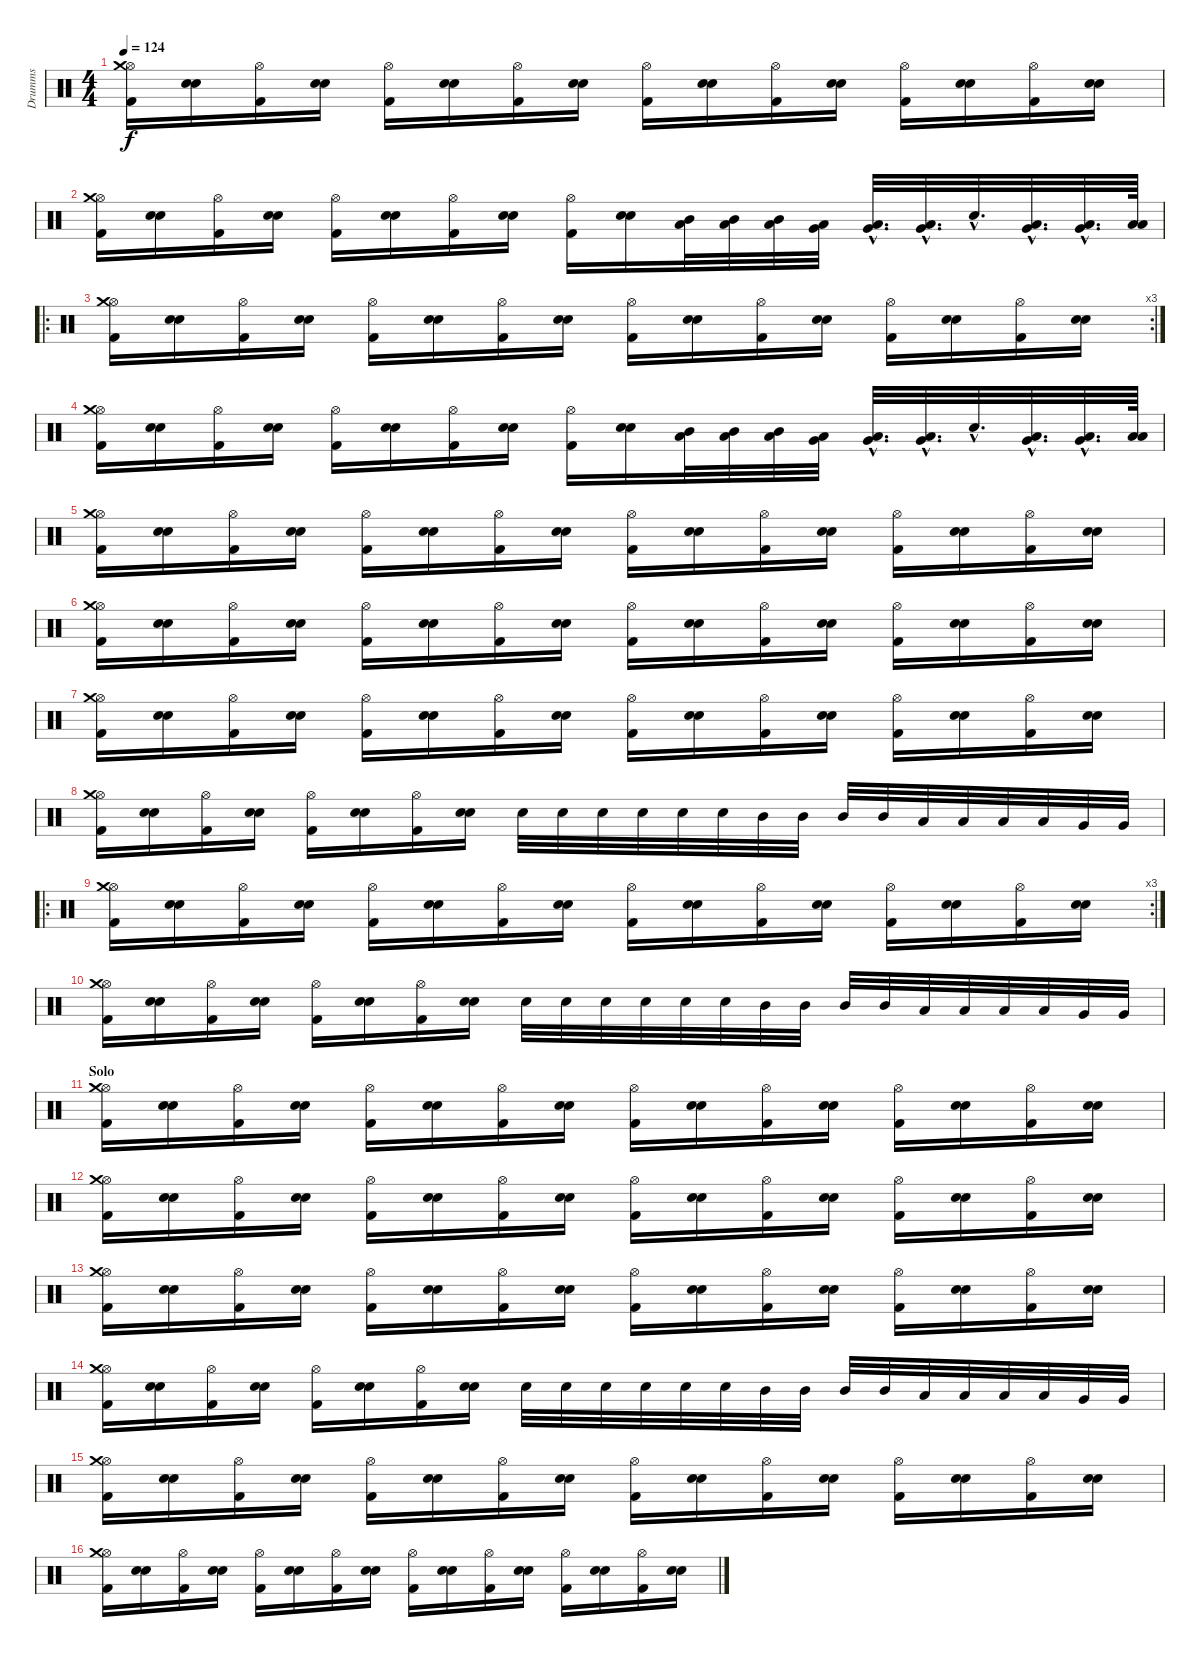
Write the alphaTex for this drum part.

\track ("Drumms" "Drumms") {instrument percussion}
\staff {score}
\articulation defaults
\ts (4 4)
\tempo 124
\clef neutral
\ks c
("Kick (hit) 2" "Hi-Hat (open)" "Crash medium (hit)").16{dy f} ("Snare (hit) 2" "Snare (hit) 2").16 ("Kick (hit) 2" "Hi-Hat (open)").16 ("Snare (hit) 2" "Snare (hit) 2").16 ("Kick (hit) 2" "Hi-Hat (open)").16 ("Snare (hit) 2" "Snare (hit) 2").16 ("Kick (hit) 2" "Hi-Hat (open)").16 ("Snare (hit) 2" "Snare (hit) 2").16 ("Kick (hit) 2" "Hi-Hat (open)").16 ("Snare (hit) 2" "Snare (hit) 2").16 ("Kick (hit) 2" "Hi-Hat (open)").16 ("Snare (hit) 2" "Snare (hit) 2").16 ("Kick (hit) 2" "Hi-Hat (open)").16 ("Snare (hit) 2" "Snare (hit) 2").16 ("Kick (hit) 2" "Hi-Hat (open)").16 ("Snare (hit) 2" "Snare (hit) 2").16 |
("Kick (hit) 2" "Hi-Hat (open)" "Crash medium (hit)").16 ("Snare (hit) 2" "Snare (hit) 2").16 ("Kick (hit) 2" "Hi-Hat (open)").16 ("Snare (hit) 2" "Snare (hit) 2").16 ("Kick (hit) 2" "Hi-Hat (open)").16 ("Snare (hit) 2" "Snare (hit) 2").16 ("Kick (hit) 2" "Hi-Hat (open)").16 ("Snare (hit) 2" "Snare (hit) 2").16 ("Kick (hit) 2" "Hi-Hat (open)").16 ("Snare (hit) 2" "Snare (hit) 2").16 ("Mid Tom (hit)" "Low Tom (hit)").32 ("Mid Tom (hit)" "Low Tom (hit)").32 ("Mid Tom (hit)" "Low Tom (hit)").32 ("Low Tom (hit)" "Very Low Tom (hit)").32 ("Low Tom (hit)"{hac} "Very Low Tom (hit)"{hac}).32{d} ("Low Tom (hit)"{hac} "Very Low Tom (hit)"{hac}).32{d} "Snare (hit) 2"{hac}.32{d} ("Very Low Tom (hit)"{hac} "Low Floor Tom (hit)"{hac}).32{d} ("Very Low Tom (hit)"{hac} "Low Floor Tom (hit)"{hac}).32{d} ("Low Floor Tom (hit)" "Low Floor Tom (hit)").64 |
\ro
\rc 3
("Kick (hit) 2" "Hi-Hat (open)" "Crash medium (hit)").16 ("Snare (hit) 2" "Snare (hit) 2").16 ("Kick (hit) 2" "Hi-Hat (open)").16 ("Snare (hit) 2" "Snare (hit) 2").16 ("Kick (hit) 2" "Hi-Hat (open)").16 ("Snare (hit) 2" "Snare (hit) 2").16 ("Kick (hit) 2" "Hi-Hat (open)").16 ("Snare (hit) 2" "Snare (hit) 2").16 ("Kick (hit) 2" "Hi-Hat (open)").16 ("Snare (hit) 2" "Snare (hit) 2").16 ("Kick (hit) 2" "Hi-Hat (open)").16 ("Snare (hit) 2" "Snare (hit) 2").16 ("Kick (hit) 2" "Hi-Hat (open)").16 ("Snare (hit) 2" "Snare (hit) 2").16 ("Kick (hit) 2" "Hi-Hat (open)").16 ("Snare (hit) 2" "Snare (hit) 2").16 |
("Kick (hit) 2" "Hi-Hat (open)" "Crash medium (hit)").16 ("Snare (hit) 2" "Snare (hit) 2").16 ("Kick (hit) 2" "Hi-Hat (open)").16 ("Snare (hit) 2" "Snare (hit) 2").16 ("Kick (hit) 2" "Hi-Hat (open)").16 ("Snare (hit) 2" "Snare (hit) 2").16 ("Kick (hit) 2" "Hi-Hat (open)").16 ("Snare (hit) 2" "Snare (hit) 2").16 ("Kick (hit) 2" "Hi-Hat (open)").16 ("Snare (hit) 2" "Snare (hit) 2").16 ("Mid Tom (hit)" "Low Tom (hit)").32 ("Mid Tom (hit)" "Low Tom (hit)").32 ("Mid Tom (hit)" "Low Tom (hit)").32 ("Low Tom (hit)" "Very Low Tom (hit)").32 ("Low Tom (hit)"{hac} "Very Low Tom (hit)"{hac}).32{d} ("Low Tom (hit)"{hac} "Very Low Tom (hit)"{hac}).32{d} "Snare (hit) 2"{hac}.32{d} ("Very Low Tom (hit)"{hac} "Low Floor Tom (hit)"{hac}).32{d} ("Very Low Tom (hit)"{hac} "Low Floor Tom (hit)"{hac}).32{d} ("Low Floor Tom (hit)" "Low Floor Tom (hit)").64 |
("Kick (hit) 2" "Hi-Hat (open)" "Crash medium (hit)").16 ("Snare (hit) 2" "Snare (hit) 2").16 ("Kick (hit) 2" "Hi-Hat (open)").16 ("Snare (hit) 2" "Snare (hit) 2").16 ("Kick (hit) 2" "Hi-Hat (open)").16 ("Snare (hit) 2" "Snare (hit) 2").16 ("Kick (hit) 2" "Hi-Hat (open)").16 ("Snare (hit) 2" "Snare (hit) 2").16 ("Kick (hit) 2" "Hi-Hat (open)").16 ("Snare (hit) 2" "Snare (hit) 2").16 ("Kick (hit) 2" "Hi-Hat (open)").16 ("Snare (hit) 2" "Snare (hit) 2").16 ("Kick (hit) 2" "Hi-Hat (open)").16 ("Snare (hit) 2" "Snare (hit) 2").16 ("Kick (hit) 2" "Hi-Hat (open)").16 ("Snare (hit) 2" "Snare (hit) 2").16 |
("Kick (hit) 2" "Hi-Hat (open)" "Crash medium (hit)").16 ("Snare (hit) 2" "Snare (hit) 2").16 ("Kick (hit) 2" "Hi-Hat (open)").16 ("Snare (hit) 2" "Snare (hit) 2").16 ("Kick (hit) 2" "Hi-Hat (open)").16 ("Snare (hit) 2" "Snare (hit) 2").16 ("Kick (hit) 2" "Hi-Hat (open)").16 ("Snare (hit) 2" "Snare (hit) 2").16 ("Kick (hit) 2" "Hi-Hat (open)").16 ("Snare (hit) 2" "Snare (hit) 2").16 ("Kick (hit) 2" "Hi-Hat (open)").16 ("Snare (hit) 2" "Snare (hit) 2").16 ("Kick (hit) 2" "Hi-Hat (open)").16 ("Snare (hit) 2" "Snare (hit) 2").16 ("Kick (hit) 2" "Hi-Hat (open)").16 ("Snare (hit) 2" "Snare (hit) 2").16 |
("Kick (hit) 2" "Hi-Hat (open)" "Crash medium (hit)").16 ("Snare (hit) 2" "Snare (hit) 2").16 ("Kick (hit) 2" "Hi-Hat (open)").16 ("Snare (hit) 2" "Snare (hit) 2").16 ("Kick (hit) 2" "Hi-Hat (open)").16 ("Snare (hit) 2" "Snare (hit) 2").16 ("Kick (hit) 2" "Hi-Hat (open)").16 ("Snare (hit) 2" "Snare (hit) 2").16 ("Kick (hit) 2" "Hi-Hat (open)").16 ("Snare (hit) 2" "Snare (hit) 2").16 ("Kick (hit) 2" "Hi-Hat (open)").16 ("Snare (hit) 2" "Snare (hit) 2").16 ("Kick (hit) 2" "Hi-Hat (open)").16 ("Snare (hit) 2" "Snare (hit) 2").16 ("Kick (hit) 2" "Hi-Hat (open)").16 ("Snare (hit) 2" "Snare (hit) 2").16 |
("Kick (hit) 2" "Hi-Hat (open)" "Crash medium (hit)").16 ("Snare (hit) 2" "Snare (hit) 2").16 ("Kick (hit) 2" "Hi-Hat (open)").16 ("Snare (hit) 2" "Snare (hit) 2").16 ("Kick (hit) 2" "Hi-Hat (open)").16 ("Snare (hit) 2" "Snare (hit) 2").16 ("Kick (hit) 2" "Hi-Hat (open)").16 ("Snare (hit) 2" "Snare (hit) 2").16 "Snare (hit) 2".32 "Snare (hit) 2".32 "Snare (hit) 2".32 "Snare (hit) 2".32 "Snare (hit) 2".32 "Snare (hit) 2".32 "Mid Tom (hit)".32 "Mid Tom (hit)".32 "Mid Tom (hit)".32 "Mid Tom (hit)".32 "Low Tom (hit)".32 "Low Tom (hit)".32 "Low Tom (hit)".32 "Low Tom (hit)".32 "Very Low Tom (hit)".32 "Very Low Tom (hit)".32 |
\ro
\rc 3
("Kick (hit) 2" "Hi-Hat (open)" "Crash medium (hit)").16 ("Snare (hit) 2" "Snare (hit) 2").16 ("Kick (hit) 2" "Hi-Hat (open)").16 ("Snare (hit) 2" "Snare (hit) 2").16 ("Kick (hit) 2" "Hi-Hat (open)").16 ("Snare (hit) 2" "Snare (hit) 2").16 ("Kick (hit) 2" "Hi-Hat (open)").16 ("Snare (hit) 2" "Snare (hit) 2").16 ("Kick (hit) 2" "Hi-Hat (open)").16 ("Snare (hit) 2" "Snare (hit) 2").16 ("Kick (hit) 2" "Hi-Hat (open)").16 ("Snare (hit) 2" "Snare (hit) 2").16 ("Kick (hit) 2" "Hi-Hat (open)").16 ("Snare (hit) 2" "Snare (hit) 2").16 ("Kick (hit) 2" "Hi-Hat (open)").16 ("Snare (hit) 2" "Snare (hit) 2").16 |
("Kick (hit) 2" "Hi-Hat (open)" "Crash medium (hit)").16 ("Snare (hit) 2" "Snare (hit) 2").16 ("Kick (hit) 2" "Hi-Hat (open)").16 ("Snare (hit) 2" "Snare (hit) 2").16 ("Kick (hit) 2" "Hi-Hat (open)").16 ("Snare (hit) 2" "Snare (hit) 2").16 ("Kick (hit) 2" "Hi-Hat (open)").16 ("Snare (hit) 2" "Snare (hit) 2").16 "Snare (hit) 2".32 "Snare (hit) 2".32 "Snare (hit) 2".32 "Snare (hit) 2".32 "Snare (hit) 2".32 "Snare (hit) 2".32 "Mid Tom (hit)".32 "Mid Tom (hit)".32 "Mid Tom (hit)".32 "Mid Tom (hit)".32 "Low Tom (hit)".32 "Low Tom (hit)".32 "Low Tom (hit)".32 "Low Tom (hit)".32 "Very Low Tom (hit)".32 "Very Low Tom (hit)".32 |
\section ("" "Solo")
("Kick (hit) 2" "Hi-Hat (open)" "Crash medium (hit)").16 ("Snare (hit) 2" "Snare (hit) 2").16 ("Kick (hit) 2" "Hi-Hat (open)").16 ("Snare (hit) 2" "Snare (hit) 2").16 ("Kick (hit) 2" "Hi-Hat (open)").16 ("Snare (hit) 2" "Snare (hit) 2").16 ("Kick (hit) 2" "Hi-Hat (open)").16 ("Snare (hit) 2" "Snare (hit) 2").16 ("Kick (hit) 2" "Hi-Hat (open)").16 ("Snare (hit) 2" "Snare (hit) 2").16 ("Kick (hit) 2" "Hi-Hat (open)").16 ("Snare (hit) 2" "Snare (hit) 2").16 ("Kick (hit) 2" "Hi-Hat (open)").16 ("Snare (hit) 2" "Snare (hit) 2").16 ("Kick (hit) 2" "Hi-Hat (open)").16 ("Snare (hit) 2" "Snare (hit) 2").16 |
("Kick (hit) 2" "Hi-Hat (open)" "Crash medium (hit)").16 ("Snare (hit) 2" "Snare (hit) 2").16 ("Kick (hit) 2" "Hi-Hat (open)").16 ("Snare (hit) 2" "Snare (hit) 2").16 ("Kick (hit) 2" "Hi-Hat (open)").16 ("Snare (hit) 2" "Snare (hit) 2").16 ("Kick (hit) 2" "Hi-Hat (open)").16 ("Snare (hit) 2" "Snare (hit) 2").16 ("Kick (hit) 2" "Hi-Hat (open)").16 ("Snare (hit) 2" "Snare (hit) 2").16 ("Kick (hit) 2" "Hi-Hat (open)").16 ("Snare (hit) 2" "Snare (hit) 2").16 ("Kick (hit) 2" "Hi-Hat (open)").16 ("Snare (hit) 2" "Snare (hit) 2").16 ("Kick (hit) 2" "Hi-Hat (open)").16 ("Snare (hit) 2" "Snare (hit) 2").16 |
("Kick (hit) 2" "Hi-Hat (open)" "Crash medium (hit)").16 ("Snare (hit) 2" "Snare (hit) 2").16 ("Kick (hit) 2" "Hi-Hat (open)").16 ("Snare (hit) 2" "Snare (hit) 2").16 ("Kick (hit) 2" "Hi-Hat (open)").16 ("Snare (hit) 2" "Snare (hit) 2").16 ("Kick (hit) 2" "Hi-Hat (open)").16 ("Snare (hit) 2" "Snare (hit) 2").16 ("Kick (hit) 2" "Hi-Hat (open)").16 ("Snare (hit) 2" "Snare (hit) 2").16 ("Kick (hit) 2" "Hi-Hat (open)").16 ("Snare (hit) 2" "Snare (hit) 2").16 ("Kick (hit) 2" "Hi-Hat (open)").16 ("Snare (hit) 2" "Snare (hit) 2").16 ("Kick (hit) 2" "Hi-Hat (open)").16 ("Snare (hit) 2" "Snare (hit) 2").16 |
("Kick (hit) 2" "Hi-Hat (open)" "Crash medium (hit)").16 ("Snare (hit) 2" "Snare (hit) 2").16 ("Kick (hit) 2" "Hi-Hat (open)").16 ("Snare (hit) 2" "Snare (hit) 2").16 ("Kick (hit) 2" "Hi-Hat (open)").16 ("Snare (hit) 2" "Snare (hit) 2").16 ("Kick (hit) 2" "Hi-Hat (open)").16 ("Snare (hit) 2" "Snare (hit) 2").16 "Snare (hit) 2".32 "Snare (hit) 2".32 "Snare (hit) 2".32 "Snare (hit) 2".32 "Snare (hit) 2".32 "Snare (hit) 2".32 "Mid Tom (hit)".32 "Mid Tom (hit)".32 "Mid Tom (hit)".32 "Mid Tom (hit)".32 "Low Tom (hit)".32 "Low Tom (hit)".32 "Low Tom (hit)".32 "Low Tom (hit)".32 "Very Low Tom (hit)".32 "Very Low Tom (hit)".32 |
("Kick (hit) 2" "Hi-Hat (open)" "Crash medium (hit)").16 ("Snare (hit) 2" "Snare (hit) 2").16 ("Kick (hit) 2" "Hi-Hat (open)").16 ("Snare (hit) 2" "Snare (hit) 2").16 ("Kick (hit) 2" "Hi-Hat (open)").16 ("Snare (hit) 2" "Snare (hit) 2").16 ("Kick (hit) 2" "Hi-Hat (open)").16 ("Snare (hit) 2" "Snare (hit) 2").16 ("Kick (hit) 2" "Hi-Hat (open)").16 ("Snare (hit) 2" "Snare (hit) 2").16 ("Kick (hit) 2" "Hi-Hat (open)").16 ("Snare (hit) 2" "Snare (hit) 2").16 ("Kick (hit) 2" "Hi-Hat (open)").16 ("Snare (hit) 2" "Snare (hit) 2").16 ("Kick (hit) 2" "Hi-Hat (open)").16 ("Snare (hit) 2" "Snare (hit) 2").16 |
("Kick (hit) 2" "Hi-Hat (open)" "Crash medium (hit)").16 ("Snare (hit) 2" "Snare (hit) 2").16 ("Kick (hit) 2" "Hi-Hat (open)").16 ("Snare (hit) 2" "Snare (hit) 2").16 ("Kick (hit) 2" "Hi-Hat (open)").16 ("Snare (hit) 2" "Snare (hit) 2").16 ("Kick (hit) 2" "Hi-Hat (open)").16 ("Snare (hit) 2" "Snare (hit) 2").16 ("Kick (hit) 2" "Hi-Hat (open)").16 ("Snare (hit) 2" "Snare (hit) 2").16 ("Kick (hit) 2" "Hi-Hat (open)").16 ("Snare (hit) 2" "Snare (hit) 2").16 ("Kick (hit) 2" "Hi-Hat (open)").16 ("Snare (hit) 2" "Snare (hit) 2").16 ("Kick (hit) 2" "Hi-Hat (open)").16 ("Snare (hit) 2" "Snare (hit) 2").16
